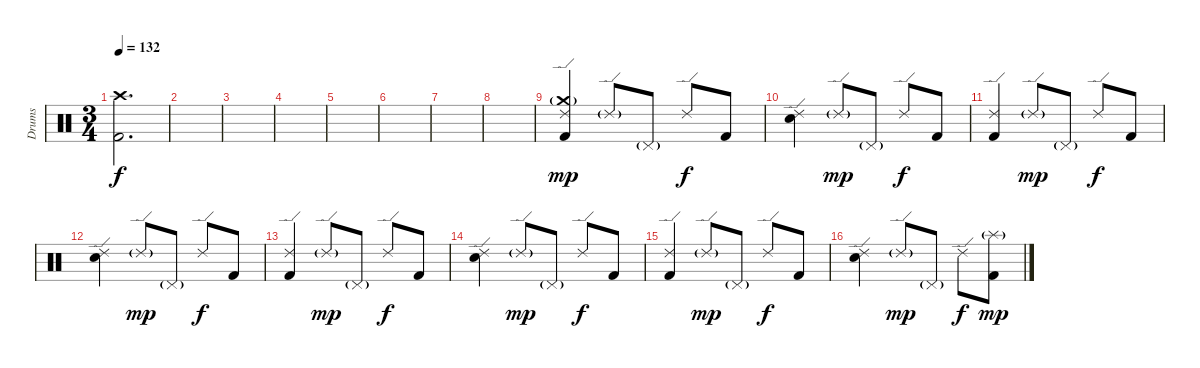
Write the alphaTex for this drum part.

\track ("Drums" "Drums") {instrument percussion}
\staff {score}
\articulation defaults
\ts (3 4)
\tempo 132
\clef neutral
\ks c
("Crash high (hit)" "Kick (hit) 2").2{d dy f} |
|
|
|
|
|
|
|
("Crash medium (hit)"{g} "Ride (edge) 2" "Kick (hit) 2").4{dy mp} "Ride (edge) 2"{g}.8 "Pedal Hi-Hat (hit)"{g}.8 "Ride (edge) 2".8{dy f} "Kick (hit) 2".8 |
("Ride (edge) 2" "Snare (hit) 2").4 "Ride (edge) 2"{g}.8{dy mp} "Pedal Hi-Hat (hit)"{g}.8 "Ride (edge) 2".8{dy f} "Kick (hit) 2".8 |
("Ride (edge) 2" "Kick (hit) 2").4 "Ride (edge) 2"{g}.8{dy mp} "Pedal Hi-Hat (hit)"{g}.8 "Ride (edge) 2".8{dy f} "Kick (hit) 2".8 |
("Ride (edge) 2" "Snare (hit) 2").4 "Ride (edge) 2"{g}.8{dy mp} "Pedal Hi-Hat (hit)"{g}.8 "Ride (edge) 2".8{dy f} "Kick (hit) 2".8 |
("Ride (edge) 2" "Kick (hit) 2").4 "Ride (edge) 2"{g}.8{dy mp} "Pedal Hi-Hat (hit)"{g}.8 "Ride (edge) 2".8{dy f} "Kick (hit) 2".8 |
("Ride (edge) 2" "Snare (hit) 2").4 "Ride (edge) 2"{g}.8{dy mp} "Pedal Hi-Hat (hit)"{g}.8 "Ride (edge) 2".8{dy f} "Kick (hit) 2".8 |
("Ride (edge) 2" "Kick (hit) 2").4 "Ride (edge) 2"{g}.8{dy mp} "Pedal Hi-Hat (hit)"{g}.8 "Ride (edge) 2".8{dy f} "Kick (hit) 2".8 |
("Ride (edge) 2" "Snare (hit) 2").4 "Ride (edge) 2"{g}.8{dy mp} "Pedal Hi-Hat (hit)"{g}.8 "Ride (edge) 2".8{dy f} ("Splash (hit)"{g} "Kick (hit) 2").8{dy mp}
